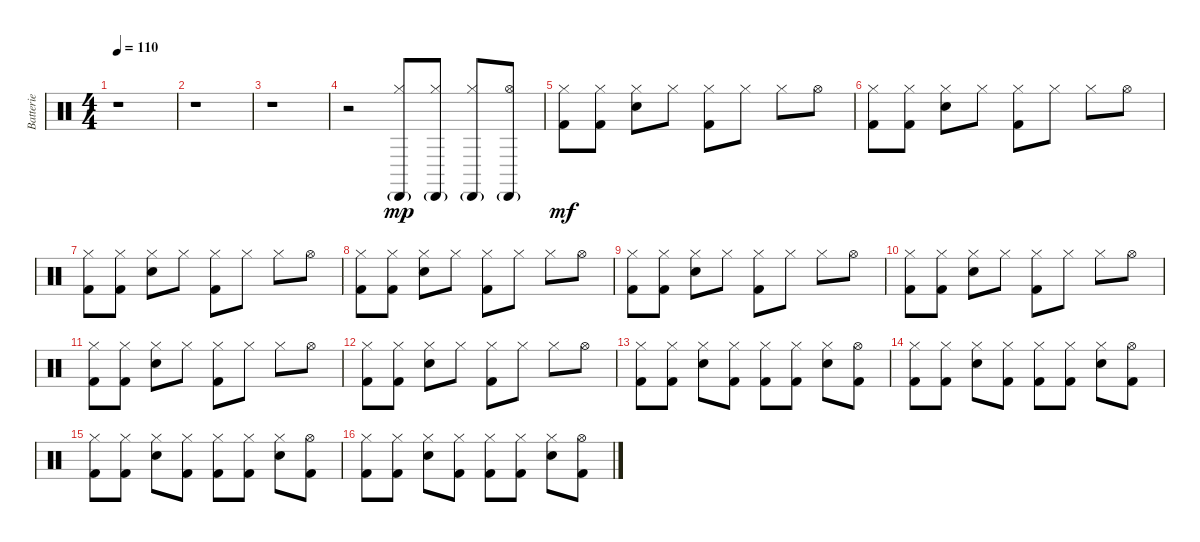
\track ("Batterie" "Batterie") {instrument percussion}
\staff {score}
\articulation defaults
\ts (4 4)
\tempo 110
\clef neutral
\ks c
r.1{dy mp} |
r.1 |
r.1 |
r.2 ("Hi-Hat (closed)" "Cabasa (hit)"{g}).8 ("Hi-Hat (closed)" "Cabasa (hit)"{g}).8 ("Hi-Hat (closed)" "Cabasa (hit)"{g}).8 ("Hi-Hat (open)" "Cabasa (hit)"{g}).8 |
("Hi-Hat (closed)" "Kick (hit) 2").8{dy mf} ("Hi-Hat (closed)" "Kick (hit) 2").8 ("Hi-Hat (closed)" "Electric Snare (hit)").8 "Hi-Hat (closed)".8 ("Hi-Hat (closed)" "Kick (hit) 2").8 "Hi-Hat (closed)".8 "Hi-Hat (closed)".8 "Hi-Hat (open)".8 |
("Hi-Hat (closed)" "Kick (hit) 2").8 ("Hi-Hat (closed)" "Kick (hit) 2").8 ("Hi-Hat (closed)" "Electric Snare (hit)").8 "Hi-Hat (closed)".8 ("Hi-Hat (closed)" "Kick (hit) 2").8 "Hi-Hat (closed)".8 "Hi-Hat (closed)".8 "Hi-Hat (open)".8 |
("Hi-Hat (closed)" "Kick (hit) 2").8 ("Hi-Hat (closed)" "Kick (hit) 2").8 ("Hi-Hat (closed)" "Electric Snare (hit)").8 "Hi-Hat (closed)".8 ("Hi-Hat (closed)" "Kick (hit) 2").8 "Hi-Hat (closed)".8 "Hi-Hat (closed)".8 "Hi-Hat (open)".8 |
("Hi-Hat (closed)" "Kick (hit) 2").8 ("Hi-Hat (closed)" "Kick (hit) 2").8 ("Hi-Hat (closed)" "Electric Snare (hit)").8 "Hi-Hat (closed)".8 ("Hi-Hat (closed)" "Kick (hit) 2").8 "Hi-Hat (closed)".8 "Hi-Hat (closed)".8 "Hi-Hat (open)".8 |
("Hi-Hat (closed)" "Kick (hit) 2").8 ("Hi-Hat (closed)" "Kick (hit) 2").8 ("Hi-Hat (closed)" "Electric Snare (hit)").8 "Hi-Hat (closed)".8 ("Hi-Hat (closed)" "Kick (hit) 2").8 "Hi-Hat (closed)".8 "Hi-Hat (closed)".8 "Hi-Hat (open)".8 |
("Hi-Hat (closed)" "Kick (hit) 2").8 ("Hi-Hat (closed)" "Kick (hit) 2").8 ("Hi-Hat (closed)" "Electric Snare (hit)").8 "Hi-Hat (closed)".8 ("Hi-Hat (closed)" "Kick (hit) 2").8 "Hi-Hat (closed)".8 "Hi-Hat (closed)".8 "Hi-Hat (open)".8 |
("Hi-Hat (closed)" "Kick (hit) 2").8 ("Hi-Hat (closed)" "Kick (hit) 2").8 ("Hi-Hat (closed)" "Electric Snare (hit)").8 "Hi-Hat (closed)".8 ("Hi-Hat (closed)" "Kick (hit) 2").8 "Hi-Hat (closed)".8 "Hi-Hat (closed)".8 "Hi-Hat (open)".8 |
("Hi-Hat (closed)" "Kick (hit) 2").8 ("Hi-Hat (closed)" "Kick (hit) 2").8 ("Hi-Hat (closed)" "Electric Snare (hit)").8 "Hi-Hat (closed)".8 ("Hi-Hat (closed)" "Kick (hit) 2").8 "Hi-Hat (closed)".8 "Hi-Hat (closed)".8 "Hi-Hat (open)".8 |
("Hi-Hat (closed)" "Kick (hit) 2").8 ("Hi-Hat (closed)" "Kick (hit) 2").8 ("Hi-Hat (closed)" "Electric Snare (hit)").8 ("Hi-Hat (closed)" "Kick (hit) 2").8 ("Hi-Hat (closed)" "Kick (hit) 2").8 ("Hi-Hat (closed)" "Kick (hit) 2").8 ("Hi-Hat (closed)" "Electric Snare (hit)").8 ("Hi-Hat (open)" "Kick (hit) 2").8 |
("Hi-Hat (closed)" "Kick (hit) 2").8 ("Hi-Hat (closed)" "Kick (hit) 2").8 ("Hi-Hat (closed)" "Electric Snare (hit)").8 ("Hi-Hat (closed)" "Kick (hit) 2").8 ("Hi-Hat (closed)" "Kick (hit) 2").8 ("Hi-Hat (closed)" "Kick (hit) 2").8 ("Hi-Hat (closed)" "Electric Snare (hit)").8 ("Hi-Hat (open)" "Kick (hit) 2").8 |
("Hi-Hat (closed)" "Kick (hit) 2").8 ("Hi-Hat (closed)" "Kick (hit) 2").8 ("Hi-Hat (closed)" "Electric Snare (hit)").8 ("Hi-Hat (closed)" "Kick (hit) 2").8 ("Hi-Hat (closed)" "Kick (hit) 2").8 ("Hi-Hat (closed)" "Kick (hit) 2").8 ("Hi-Hat (closed)" "Electric Snare (hit)").8 ("Hi-Hat (open)" "Kick (hit) 2").8 |
("Hi-Hat (closed)" "Kick (hit) 2").8 ("Hi-Hat (closed)" "Kick (hit) 2").8 ("Hi-Hat (closed)" "Electric Snare (hit)").8 ("Hi-Hat (closed)" "Kick (hit) 2").8 ("Hi-Hat (closed)" "Kick (hit) 2").8 ("Hi-Hat (closed)" "Kick (hit) 2").8 ("Hi-Hat (closed)" "Electric Snare (hit)").8 ("Hi-Hat (open)" "Kick (hit) 2").8
